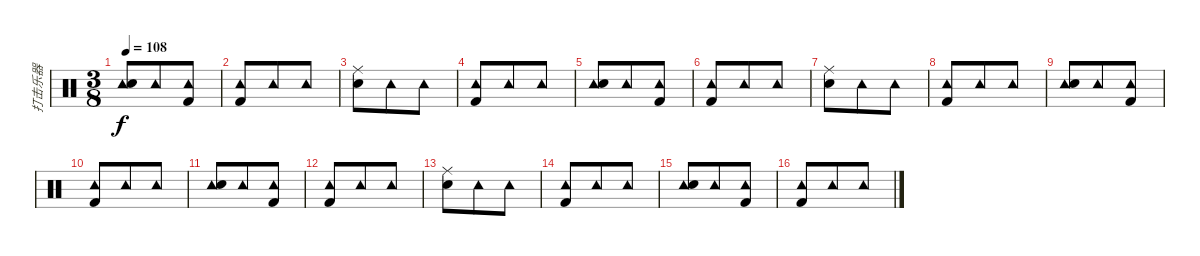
\track ("打击乐器" "打击乐器") {instrument percussion}
\staff {score}
\articulation defaults
\ts (3 8)
\tempo 108
\clef neutral
\ks c
("Tambourine (hit)" "Snare (hit) 2").8{dy f} "Tambourine (hit)".8 ("Tambourine (hit)" "Kick (hit) 2").8 |
("Tambourine (hit)" "Kick (hit) 2").8 "Tambourine (hit)".8 "Tambourine (hit)".8 |
("Ride (middle)" "Snare (hit) 2").8 "Tambourine (hit)".8 "Tambourine (hit)".8 |
("Tambourine (hit)" "Kick (hit) 2").8 "Tambourine (hit)".8 "Tambourine (hit)".8 |
("Tambourine (hit)" "Snare (hit) 2").8 "Tambourine (hit)".8 ("Tambourine (hit)" "Kick (hit) 2").8 |
("Tambourine (hit)" "Kick (hit) 2").8 "Tambourine (hit)".8 "Tambourine (hit)".8 |
("Ride (middle)" "Snare (hit) 2").8 "Tambourine (hit)".8 "Tambourine (hit)".8 |
("Tambourine (hit)" "Kick (hit) 2").8 "Tambourine (hit)".8 "Tambourine (hit)".8 |
("Tambourine (hit)" "Snare (hit) 2").8 "Tambourine (hit)".8 ("Tambourine (hit)" "Kick (hit) 2").8 |
("Tambourine (hit)" "Kick (hit) 2").8 "Tambourine (hit)".8 "Tambourine (hit)".8 |
("Tambourine (hit)" "Snare (hit) 2").8 "Tambourine (hit)".8 ("Tambourine (hit)" "Kick (hit) 2").8 |
("Tambourine (hit)" "Kick (hit) 2").8 "Tambourine (hit)".8 "Tambourine (hit)".8 |
("Ride (middle)" "Snare (hit) 2").8 "Tambourine (hit)".8 "Tambourine (hit)".8 |
("Tambourine (hit)" "Kick (hit) 2").8 "Tambourine (hit)".8 "Tambourine (hit)".8 |
("Tambourine (hit)" "Snare (hit) 2").8 "Tambourine (hit)".8 ("Tambourine (hit)" "Kick (hit) 2").8 |
("Tambourine (hit)" "Kick (hit) 2").8 "Tambourine (hit)".8 "Tambourine (hit)".8
